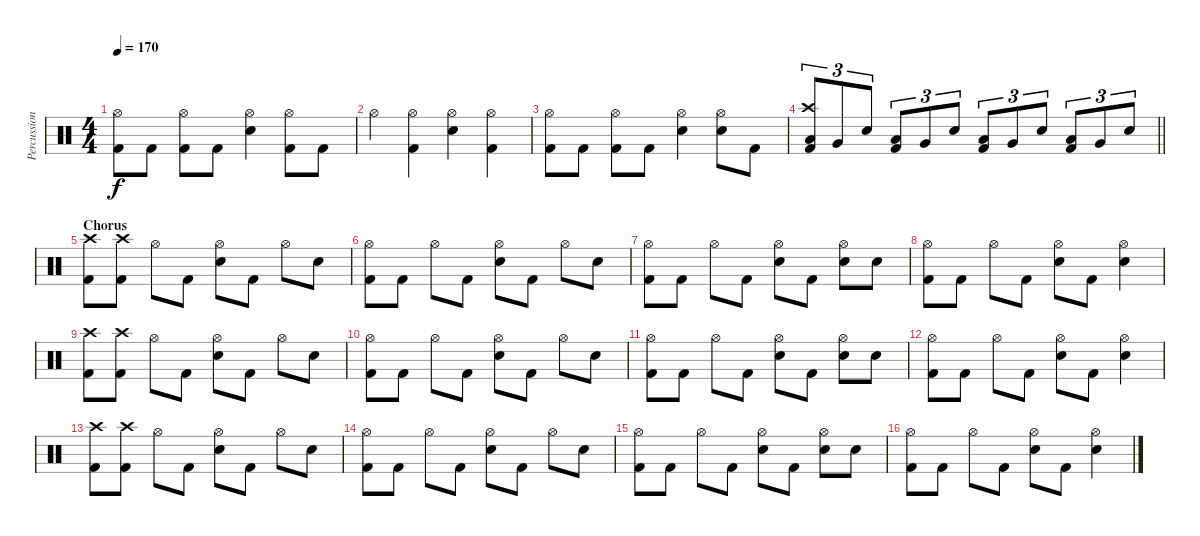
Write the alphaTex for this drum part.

\track ("Percussion" "Percussion") {instrument percussion}
\staff {score}
\articulation defaults
\ts (4 4)
\tempo 170
\clef neutral
\ks c
("Hi-Hat (open)" "Kick (hit) 2").8{dy f} "Kick (hit) 2".8 ("Hi-Hat (open)" "Kick (hit) 2").8 "Kick (hit) 2".8 ("Hi-Hat (open)" "Electric Snare (hit)").4 ("Hi-Hat (open)" "Kick (hit) 2").8 "Kick (hit) 2".8 |
"Hi-Hat (open)".4 ("Hi-Hat (open)" "Kick (hit) 2").4 ("Hi-Hat (open)" "Electric Snare (hit)").4 ("Hi-Hat (open)" "Kick (hit) 2").4 |
("Hi-Hat (open)" "Kick (hit) 2").8 "Kick (hit) 2".8 ("Hi-Hat (open)" "Kick (hit) 2").8 "Kick (hit) 2".8 ("Hi-Hat (open)" "Electric Snare (hit)").4 ("Hi-Hat (open)" "Electric Snare (hit)").8 "Kick (hit) 2".8 |
\barLineRight lightlight
("Crash high (hit)" "Low Tom (hit)" "Kick (hit) 2").8{tu (3 2)} "Very Low Tom (hit)".8{tu (3 2)} "Electric Snare (hit)".8{tu (3 2)} ("Low Tom (hit)" "Kick (hit) 2").8{tu (3 2)} "Very Low Tom (hit)".8{tu (3 2)} "Electric Snare (hit)".8{tu (3 2)} ("Low Tom (hit)" "Kick (hit) 2").8{tu (3 2)} "Very Low Tom (hit)".8{tu (3 2)} "Electric Snare (hit)".8{tu (3 2)} ("Low Tom (hit)" "Kick (hit) 2").8{tu (3 2)} "Very Low Tom (hit)".8{tu (3 2)} "Electric Snare (hit)".8{tu (3 2)} |
\section ("" "Chorus")
("Crash high (hit)" "Kick (hit) 2").8 ("Crash high (hit)" "Kick (hit) 2").8 "Hi-Hat (open)".8 "Kick (hit) 2".8 ("Hi-Hat (open)" "Electric Snare (hit)").8 "Kick (hit) 2".8 "Hi-Hat (open)".8 "Electric Snare (hit)".8 |
("Hi-Hat (open)" "Kick (hit) 2").8 "Kick (hit) 2".8 "Hi-Hat (open)".8 "Kick (hit) 2".8 ("Hi-Hat (open)" "Electric Snare (hit)").8 "Kick (hit) 2".8 "Hi-Hat (open)".8 "Electric Snare (hit)".8 |
("Hi-Hat (open)" "Kick (hit) 2").8 "Kick (hit) 2".8 "Hi-Hat (open)".8 "Kick (hit) 2".8 ("Hi-Hat (open)" "Electric Snare (hit)").8 "Kick (hit) 2".8 ("Hi-Hat (open)" "Electric Snare (hit)").8 "Electric Snare (hit)".8 |
("Hi-Hat (open)" "Kick (hit) 2").8 "Kick (hit) 2".8 "Hi-Hat (open)".8 "Kick (hit) 2".8 ("Hi-Hat (open)" "Electric Snare (hit)").8 "Kick (hit) 2".8 ("Hi-Hat (open)" "Electric Snare (hit)").4 |
("Crash high (hit)" "Kick (hit) 2").8 ("Crash high (hit)" "Kick (hit) 2").8 "Hi-Hat (open)".8 "Kick (hit) 2".8 ("Hi-Hat (open)" "Electric Snare (hit)").8 "Kick (hit) 2".8 "Hi-Hat (open)".8 "Electric Snare (hit)".8 |
("Hi-Hat (open)" "Kick (hit) 2").8 "Kick (hit) 2".8 "Hi-Hat (open)".8 "Kick (hit) 2".8 ("Hi-Hat (open)" "Electric Snare (hit)").8 "Kick (hit) 2".8 "Hi-Hat (open)".8 "Electric Snare (hit)".8 |
("Hi-Hat (open)" "Kick (hit) 2").8 "Kick (hit) 2".8 "Hi-Hat (open)".8 "Kick (hit) 2".8 ("Hi-Hat (open)" "Electric Snare (hit)").8 "Kick (hit) 2".8 ("Hi-Hat (open)" "Electric Snare (hit)").8 "Electric Snare (hit)".8 |
("Hi-Hat (open)" "Kick (hit) 2").8 "Kick (hit) 2".8 "Hi-Hat (open)".8 "Kick (hit) 2".8 ("Hi-Hat (open)" "Electric Snare (hit)").8 "Kick (hit) 2".8 ("Hi-Hat (open)" "Electric Snare (hit)").4 |
("Crash high (hit)" "Kick (hit) 2").8 ("Crash high (hit)" "Kick (hit) 2").8 "Hi-Hat (open)".8 "Kick (hit) 2".8 ("Hi-Hat (open)" "Electric Snare (hit)").8 "Kick (hit) 2".8 "Hi-Hat (open)".8 "Electric Snare (hit)".8 |
("Hi-Hat (open)" "Kick (hit) 2").8 "Kick (hit) 2".8 "Hi-Hat (open)".8 "Kick (hit) 2".8 ("Hi-Hat (open)" "Electric Snare (hit)").8 "Kick (hit) 2".8 "Hi-Hat (open)".8 "Electric Snare (hit)".8 |
("Hi-Hat (open)" "Kick (hit) 2").8 "Kick (hit) 2".8 "Hi-Hat (open)".8 "Kick (hit) 2".8 ("Hi-Hat (open)" "Electric Snare (hit)").8 "Kick (hit) 2".8 ("Hi-Hat (open)" "Electric Snare (hit)").8 "Electric Snare (hit)".8 |
("Hi-Hat (open)" "Kick (hit) 2").8 "Kick (hit) 2".8 "Hi-Hat (open)".8 "Kick (hit) 2".8 ("Hi-Hat (open)" "Electric Snare (hit)").8 "Kick (hit) 2".8 ("Hi-Hat (open)" "Electric Snare (hit)").4
